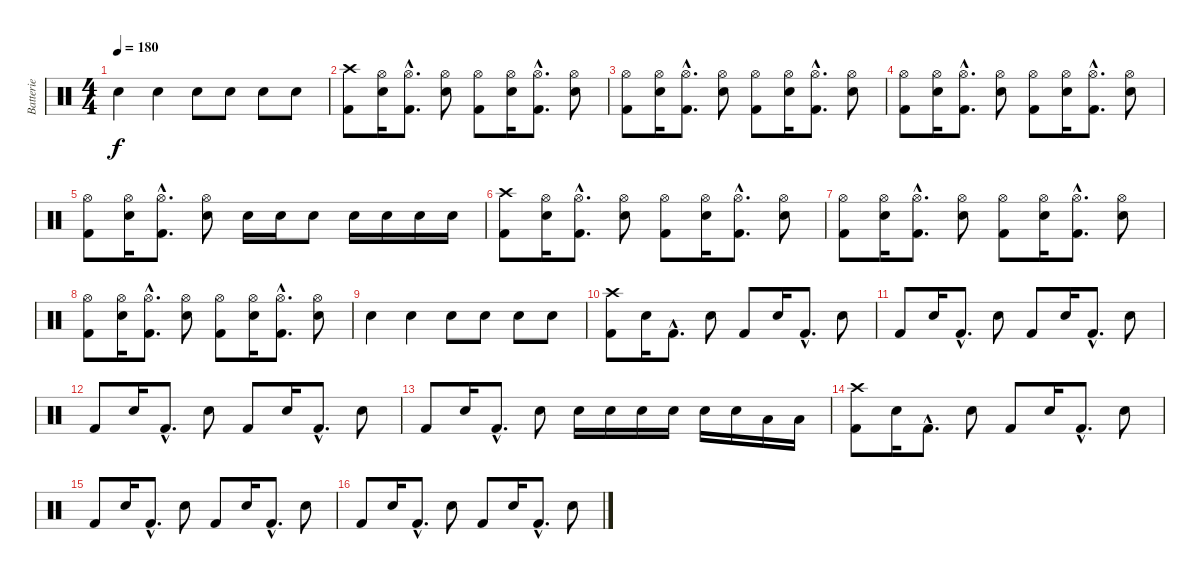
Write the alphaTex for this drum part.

\track ("Batterie" "Batterie") {instrument percussion}
\staff {score}
\articulation defaults
\ts (4 4)
\tempo 180
\clef neutral
\ks c "Electric Snare (hit)".4{dy f} "Electric Snare (hit)".4 "Electric Snare (hit)".8 "Electric Snare (hit)".8 "Electric Snare (hit)".8 "Electric Snare (hit)".8
|
("Crash high (hit)" "Kick (hit) 2").8 ("Hi-Hat (open)" "Electric Snare (hit)").16 ("Hi-Hat (open)"{hac} "Kick (hit) 2"{hac}).8{d} ("Hi-Hat (open)" "Electric Snare (hit)").8 ("Hi-Hat (open)" "Kick (hit) 2").8 ("Hi-Hat (open)" "Electric Snare (hit)").16 ("Hi-Hat (open)"{hac} "Kick (hit) 2"{hac}).8{d} ("Hi-Hat (open)" "Electric Snare (hit)").8 |
("Hi-Hat (open)" "Kick (hit) 2").8 ("Hi-Hat (open)" "Electric Snare (hit)").16 ("Hi-Hat (open)"{hac} "Kick (hit) 2"{hac}).8{d} ("Hi-Hat (open)" "Electric Snare (hit)").8 ("Hi-Hat (open)" "Kick (hit) 2").8 ("Hi-Hat (open)" "Electric Snare (hit)").16 ("Hi-Hat (open)"{hac} "Kick (hit) 2"{hac}).8{d} ("Hi-Hat (open)" "Electric Snare (hit)").8 |
("Hi-Hat (open)" "Kick (hit) 2").8 ("Hi-Hat (open)" "Electric Snare (hit)").16 ("Hi-Hat (open)"{hac} "Kick (hit) 2"{hac}).8{d} ("Hi-Hat (open)" "Electric Snare (hit)").8 ("Hi-Hat (open)" "Kick (hit) 2").8 ("Hi-Hat (open)" "Electric Snare (hit)").16 ("Hi-Hat (open)"{hac} "Kick (hit) 2"{hac}).8{d} ("Hi-Hat (open)" "Electric Snare (hit)").8 |
("Hi-Hat (open)" "Kick (hit) 2").8 ("Hi-Hat (open)" "Electric Snare (hit)").16 ("Hi-Hat (open)"{hac} "Kick (hit) 2"{hac}).8{d} ("Hi-Hat (open)" "Electric Snare (hit)").8 "Electric Snare (hit)".16 "Electric Snare (hit)".16 "Electric Snare (hit)".8 "Electric Snare (hit)".16 "Electric Snare (hit)".16 "Electric Snare (hit)".16 "Electric Snare (hit)".16 |
("Crash high (hit)" "Kick (hit) 2").8 ("Hi-Hat (open)" "Electric Snare (hit)").16 ("Hi-Hat (open)"{hac} "Kick (hit) 2"{hac}).8{d} ("Hi-Hat (open)" "Electric Snare (hit)").8 ("Hi-Hat (open)" "Kick (hit) 2").8 ("Hi-Hat (open)" "Electric Snare (hit)").16 ("Hi-Hat (open)"{hac} "Kick (hit) 2"{hac}).8{d} ("Hi-Hat (open)" "Electric Snare (hit)").8 |
("Hi-Hat (open)" "Kick (hit) 2").8 ("Hi-Hat (open)" "Electric Snare (hit)").16 ("Hi-Hat (open)"{hac} "Kick (hit) 2"{hac}).8{d} ("Hi-Hat (open)" "Electric Snare (hit)").8 ("Hi-Hat (open)" "Kick (hit) 2").8 ("Hi-Hat (open)" "Electric Snare (hit)").16 ("Hi-Hat (open)"{hac} "Kick (hit) 2"{hac}).8{d} ("Hi-Hat (open)" "Electric Snare (hit)").8 |
("Hi-Hat (open)" "Kick (hit) 2").8 ("Hi-Hat (open)" "Electric Snare (hit)").16 ("Hi-Hat (open)"{hac} "Kick (hit) 2"{hac}).8{d} ("Hi-Hat (open)" "Electric Snare (hit)").8 ("Hi-Hat (open)" "Kick (hit) 2").8 ("Hi-Hat (open)" "Electric Snare (hit)").16 ("Hi-Hat (open)"{hac} "Kick (hit) 2"{hac}).8{d} ("Hi-Hat (open)" "Electric Snare (hit)").8 |
"Electric Snare (hit)".4 "Electric Snare (hit)".4 "Electric Snare (hit)".8 "Electric Snare (hit)".8 "Electric Snare (hit)".8 "Electric Snare (hit)".8 |
("Crash high (hit)" "Kick (hit) 2").8 "Electric Snare (hit)".16 "Kick (hit) 2"{hac}.8{d} "Electric Snare (hit)".8 "Kick (hit) 2".8 "Electric Snare (hit)".16 "Kick (hit) 2"{hac}.8{d} "Electric Snare (hit)".8 |
"Kick (hit) 2".8 "Electric Snare (hit)".16 "Kick (hit) 2"{hac}.8{d} "Electric Snare (hit)".8 "Kick (hit) 2".8 "Electric Snare (hit)".16 "Kick (hit) 2"{hac}.8{d} "Electric Snare (hit)".8 |
"Kick (hit) 2".8 "Electric Snare (hit)".16 "Kick (hit) 2"{hac}.8{d} "Electric Snare (hit)".8 "Kick (hit) 2".8 "Electric Snare (hit)".16 "Kick (hit) 2"{hac}.8{d} "Electric Snare (hit)".8 |
"Kick (hit) 2".8 "Electric Snare (hit)".16 "Kick (hit) 2"{hac}.8{d} "Electric Snare (hit)".8 "Electric Snare (hit)".16 "Electric Snare (hit)".16 "Electric Snare (hit)".16 "Electric Snare (hit)".16 "Snare (hit) 2".16 "Snare (hit) 2".16 "Low Tom (hit)".16 "Low Tom (hit)".16 |
("Crash high (hit)" "Kick (hit) 2").8 "Electric Snare (hit)".16 "Kick (hit) 2"{hac}.8{d} "Electric Snare (hit)".8 "Kick (hit) 2".8 "Electric Snare (hit)".16 "Kick (hit) 2"{hac}.8{d} "Electric Snare (hit)".8 |
"Kick (hit) 2".8 "Electric Snare (hit)".16 "Kick (hit) 2"{hac}.8{d} "Electric Snare (hit)".8 "Kick (hit) 2".8 "Electric Snare (hit)".16 "Kick (hit) 2"{hac}.8{d} "Electric Snare (hit)".8 |
"Kick (hit) 2".8 "Electric Snare (hit)".16 "Kick (hit) 2"{hac}.8{d} "Electric Snare (hit)".8 "Kick (hit) 2".8 "Electric Snare (hit)".16 "Kick (hit) 2"{hac}.8{d} "Electric Snare (hit)".8
